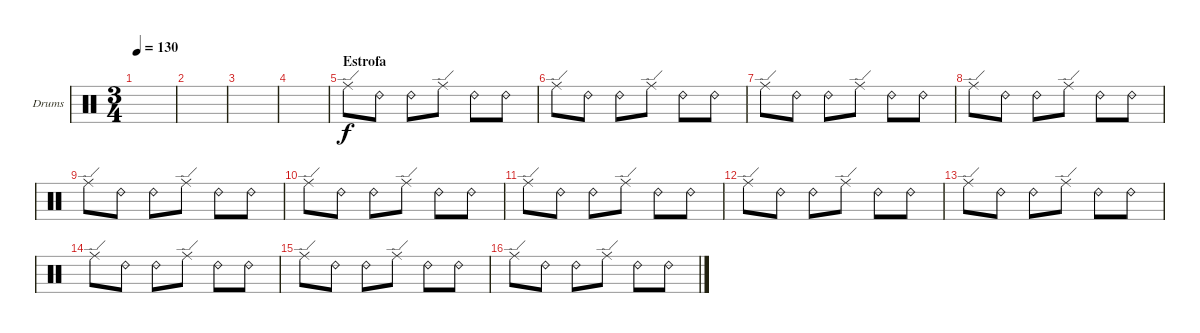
\defaultSystemsLayout 4
\bracketExtendMode groupsimilarinstruments
\firstSystemTrackNameOrientation horizontal
\otherSystemsTrackNameOrientation horizontal
\track ("Drumkit" "Drums") {instrument percussion}
\staff {score}
\articulation defaults
\ts (3 4)
\tempo 130
\clef neutral
\ks c
|
|
|
|
\section ("" "Estrofa")
"Ride (edge)".8 "Ride (bell) 2".8 "Ride (bell) 2".8 "Ride (edge)".8 "Ride (bell) 2".8 "Ride (bell) 2".8 |
"Ride (edge)".8 "Ride (bell) 2".8 "Ride (bell) 2".8 "Ride (edge)".8 "Ride (bell) 2".8 "Ride (bell) 2".8 |
"Ride (edge)".8 "Ride (bell) 2".8 "Ride (bell) 2".8 "Ride (edge)".8 "Ride (bell) 2".8 "Ride (bell) 2".8 |
"Ride (edge)".8 "Ride (bell) 2".8 "Ride (bell) 2".8 "Ride (edge)".8 "Ride (bell) 2".8 "Ride (bell) 2".8 |
"Ride (edge)".8 "Ride (bell) 2".8 "Ride (bell) 2".8 "Ride (edge)".8 "Ride (bell) 2".8 "Ride (bell) 2".8 |
"Ride (edge)".8 "Ride (bell) 2".8 "Ride (bell) 2".8 "Ride (edge)".8 "Ride (bell) 2".8 "Ride (bell) 2".8 |
"Ride (edge)".8 "Ride (bell) 2".8 "Ride (bell) 2".8 "Ride (edge)".8 "Ride (bell) 2".8 "Ride (bell) 2".8 |
"Ride (edge)".8 "Ride (bell) 2".8 "Ride (bell) 2".8 "Ride (edge)".8 "Ride (bell) 2".8 "Ride (bell) 2".8 |
"Ride (edge)".8 "Ride (bell) 2".8 "Ride (bell) 2".8 "Ride (edge)".8 "Ride (bell) 2".8 "Ride (bell) 2".8 |
"Ride (edge)".8 "Ride (bell) 2".8 "Ride (bell) 2".8 "Ride (edge)".8 "Ride (bell) 2".8 "Ride (bell) 2".8 |
"Ride (edge)".8 "Ride (bell) 2".8 "Ride (bell) 2".8 "Ride (edge)".8 "Ride (bell) 2".8 "Ride (bell) 2".8 |
"Ride (edge)".8 "Ride (bell) 2".8 "Ride (bell) 2".8 "Ride (edge)".8 "Ride (bell) 2".8 "Ride (bell) 2".8
